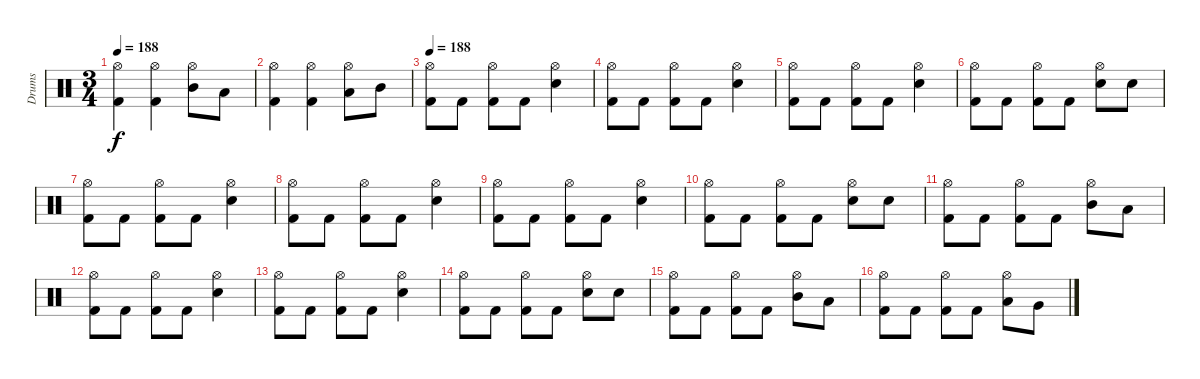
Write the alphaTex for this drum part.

\track ("Drums" "Drums") {instrument percussion}
\staff {score}
\articulation defaults
\ts (3 4)
\tempo 188
\clef neutral
\ks c
("Hi-Hat (open)" "Kick (hit) 2").4{dy f} ("Hi-Hat (open)" "Kick (hit) 2").4 ("Hi-Hat (open)" "Mid Tom (hit)").8 "Low Tom (hit)".8 |
("Hi-Hat (open)" "Kick (hit) 2").4 ("Hi-Hat (open)" "Kick (hit) 2").4 ("Hi-Hat (open)" "Low Tom (hit)").8 "Mid Tom (hit)".8 |
\tempo 188
("Hi-Hat (open)" "Kick (hit) 2").8 "Kick (hit) 2".8 ("Hi-Hat (open)" "Kick (hit) 2").8 "Kick (hit) 2".8 ("Electric Snare (hit)" "Hi-Hat (open)").4 |
("Hi-Hat (open)" "Kick (hit) 2").8 "Kick (hit) 2".8 ("Hi-Hat (open)" "Kick (hit) 2").8 "Kick (hit) 2".8 ("Electric Snare (hit)" "Hi-Hat (open)").4 |
("Hi-Hat (open)" "Kick (hit) 2").8 "Kick (hit) 2".8 ("Hi-Hat (open)" "Kick (hit) 2").8 "Kick (hit) 2".8 ("Electric Snare (hit)" "Hi-Hat (open)").4 |
("Hi-Hat (open)" "Kick (hit) 2").8 "Kick (hit) 2".8 ("Hi-Hat (open)" "Kick (hit) 2").8 "Kick (hit) 2".8 ("Electric Snare (hit)" "Hi-Hat (open)").8 "Electric Snare (hit)".8 |
("Hi-Hat (open)" "Kick (hit) 2").8 "Kick (hit) 2".8 ("Hi-Hat (open)" "Kick (hit) 2").8 "Kick (hit) 2".8 ("Electric Snare (hit)" "Hi-Hat (open)").4 |
("Hi-Hat (open)" "Kick (hit) 2").8 "Kick (hit) 2".8 ("Hi-Hat (open)" "Kick (hit) 2").8 "Kick (hit) 2".8 ("Electric Snare (hit)" "Hi-Hat (open)").4 |
("Hi-Hat (open)" "Kick (hit) 2").8 "Kick (hit) 2".8 ("Hi-Hat (open)" "Kick (hit) 2").8 "Kick (hit) 2".8 ("Electric Snare (hit)" "Hi-Hat (open)").4 |
("Hi-Hat (open)" "Kick (hit) 2").8 "Kick (hit) 2".8 ("Hi-Hat (open)" "Kick (hit) 2").8 "Kick (hit) 2".8 ("Electric Snare (hit)" "Hi-Hat (open)").8 "Electric Snare (hit)".8 |
("Hi-Hat (open)" "Kick (hit) 2").8 "Kick (hit) 2".8 ("Hi-Hat (open)" "Kick (hit) 2").8 "Kick (hit) 2".8 ("Hi-Hat (open)" "Mid Tom (hit)").8 "Low Tom (hit)".8 |
("Hi-Hat (open)" "Kick (hit) 2").8 "Kick (hit) 2".8 ("Hi-Hat (open)" "Kick (hit) 2").8 "Kick (hit) 2".8 ("Electric Snare (hit)" "Hi-Hat (open)").4 |
("Hi-Hat (open)" "Kick (hit) 2").8 "Kick (hit) 2".8 ("Hi-Hat (open)" "Kick (hit) 2").8 "Kick (hit) 2".8 ("Electric Snare (hit)" "Hi-Hat (open)").4 |
("Hi-Hat (open)" "Kick (hit) 2").8 "Kick (hit) 2".8 ("Hi-Hat (open)" "Kick (hit) 2").8 "Kick (hit) 2".8 ("Electric Snare (hit)" "Hi-Hat (open)").8 "Electric Snare (hit)".8 |
("Hi-Hat (open)" "Kick (hit) 2").8 "Kick (hit) 2".8 ("Hi-Hat (open)" "Kick (hit) 2").8 "Kick (hit) 2".8 ("Hi-Hat (open)" "Mid Tom (hit)").8 "Low Tom (hit)".8 |
("Hi-Hat (open)" "Kick (hit) 2").8 "Kick (hit) 2".8 ("Hi-Hat (open)" "Kick (hit) 2").8 "Kick (hit) 2".8 ("Hi-Hat (open)" "Low Tom (hit)").8 "Very Low Tom (hit)".8
